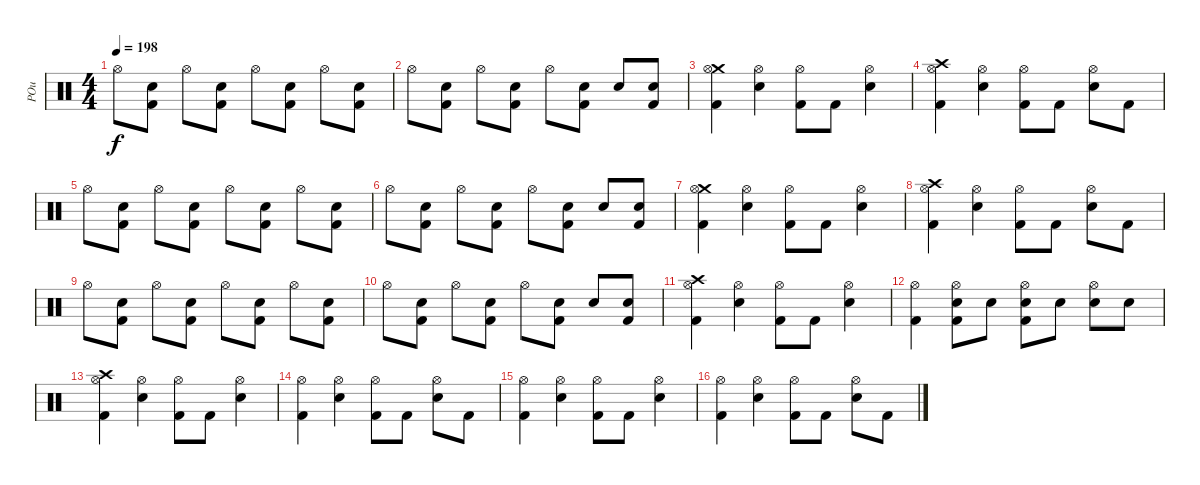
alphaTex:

\track ("POu" "POu") {instrument percussion}
\staff {score}
\articulation defaults
\ts (4 4)
\tempo 198
\clef neutral
\ks c "Hi-Hat (open)".8{dy f}
("Electric Snare (hit)" "Kick (hit) 2").8 "Hi-Hat (open)".8 ("Electric Snare (hit)" "Kick (hit) 2").8 "Hi-Hat (open)".8 ("Electric Snare (hit)" "Kick (hit) 2").8 "Hi-Hat (open)".8 ("Electric Snare (hit)" "Kick (hit) 2").8 |
"Hi-Hat (open)".8 ("Electric Snare (hit)" "Kick (hit) 2").8 "Hi-Hat (open)".8 ("Electric Snare (hit)" "Kick (hit) 2").8 "Hi-Hat (open)".8 ("Electric Snare (hit)" "Kick (hit) 2").8 "Electric Snare (hit)".8 ("Electric Snare (hit)" "Kick (hit) 2").8 |
("Crash medium (hit)" "Kick (hit) 2" "Hi-Hat (open)").4 ("Electric Snare (hit)" "Hi-Hat (open)").4 ("Kick (hit) 2" "Hi-Hat (open)").8 "Kick (hit) 2".8 ("Electric Snare (hit)" "Hi-Hat (open)").4 |
("Crash high (hit)" "Kick (hit) 2" "Hi-Hat (open)").4 ("Electric Snare (hit)" "Hi-Hat (open)").4 ("Kick (hit) 2" "Hi-Hat (open)").8 "Kick (hit) 2".8 ("Electric Snare (hit)" "Hi-Hat (open)").8 "Kick (hit) 2".8 |
"Hi-Hat (open)".8 ("Electric Snare (hit)" "Kick (hit) 2").8 "Hi-Hat (open)".8 ("Electric Snare (hit)" "Kick (hit) 2").8 "Hi-Hat (open)".8 ("Electric Snare (hit)" "Kick (hit) 2").8 "Hi-Hat (open)".8 ("Electric Snare (hit)" "Kick (hit) 2").8 |
"Hi-Hat (open)".8 ("Electric Snare (hit)" "Kick (hit) 2").8 "Hi-Hat (open)".8 ("Electric Snare (hit)" "Kick (hit) 2").8 "Hi-Hat (open)".8 ("Electric Snare (hit)" "Kick (hit) 2").8 "Electric Snare (hit)".8 ("Electric Snare (hit)" "Kick (hit) 2").8 |
("Crash medium (hit)" "Kick (hit) 2" "Hi-Hat (open)").4 ("Electric Snare (hit)" "Hi-Hat (open)").4 ("Kick (hit) 2" "Hi-Hat (open)").8 "Kick (hit) 2".8 ("Electric Snare (hit)" "Hi-Hat (open)").4 |
("Crash high (hit)" "Kick (hit) 2" "Hi-Hat (open)").4 ("Electric Snare (hit)" "Hi-Hat (open)").4 ("Kick (hit) 2" "Hi-Hat (open)").8 "Kick (hit) 2".8 ("Electric Snare (hit)" "Hi-Hat (open)").8 "Kick (hit) 2".8 |
"Hi-Hat (open)".8 ("Electric Snare (hit)" "Kick (hit) 2").8 "Hi-Hat (open)".8 ("Electric Snare (hit)" "Kick (hit) 2").8 "Hi-Hat (open)".8 ("Electric Snare (hit)" "Kick (hit) 2").8 "Hi-Hat (open)".8 ("Electric Snare (hit)" "Kick (hit) 2").8 |
"Hi-Hat (open)".8 ("Electric Snare (hit)" "Kick (hit) 2").8 "Hi-Hat (open)".8 ("Electric Snare (hit)" "Kick (hit) 2").8 "Hi-Hat (open)".8 ("Electric Snare (hit)" "Kick (hit) 2").8 "Electric Snare (hit)".8 ("Electric Snare (hit)" "Kick (hit) 2").8 |
("Crash high (hit)" "Kick (hit) 2" "Hi-Hat (open)").4 ("Electric Snare (hit)" "Hi-Hat (open)").4 ("Kick (hit) 2" "Hi-Hat (open)").8 "Kick (hit) 2".8 ("Electric Snare (hit)" "Hi-Hat (open)").4 |
("Hi-Hat (open)" "Kick (hit) 2").4 ("Electric Snare (hit)" "Hi-Hat (open)" "Kick (hit) 2").8 "Electric Snare (hit)".8 ("Electric Snare (hit)" "Hi-Hat (open)" "Kick (hit) 2").8 "Electric Snare (hit)".8 ("Electric Snare (hit)" "Hi-Hat (open)").8 "Electric Snare (hit)".8 |
("Crash high (hit)" "Kick (hit) 2" "Hi-Hat (open)").4 ("Electric Snare (hit)" "Hi-Hat (open)").4 ("Kick (hit) 2" "Hi-Hat (open)").8 "Kick (hit) 2".8 ("Electric Snare (hit)" "Hi-Hat (open)").4 |
("Kick (hit) 2" "Hi-Hat (open)").4 ("Electric Snare (hit)" "Hi-Hat (open)").4 ("Kick (hit) 2" "Hi-Hat (open)").8 "Kick (hit) 2".8 ("Electric Snare (hit)" "Hi-Hat (open)").8 "Kick (hit) 2".8 |
("Kick (hit) 2" "Hi-Hat (open)").4 ("Electric Snare (hit)" "Hi-Hat (open)").4 ("Kick (hit) 2" "Hi-Hat (open)").8 "Kick (hit) 2".8 ("Electric Snare (hit)" "Hi-Hat (open)").4 |
("Kick (hit) 2" "Hi-Hat (open)").4 ("Electric Snare (hit)" "Hi-Hat (open)").4 ("Kick (hit) 2" "Hi-Hat (open)").8 "Kick (hit) 2".8 ("Electric Snare (hit)" "Hi-Hat (open)").8 "Kick (hit) 2".8
